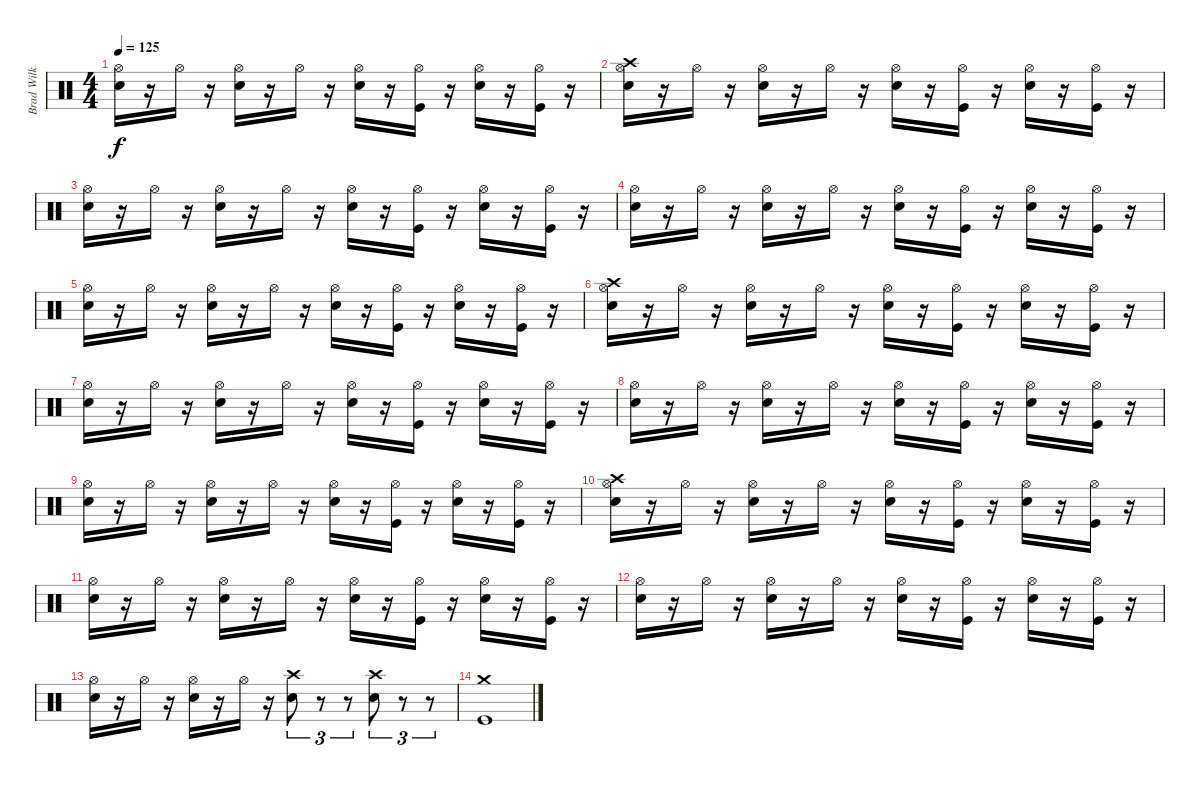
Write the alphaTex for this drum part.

\track ("Brad Wilk - Drums" "Brad Wilk ") {instrument percussion}
\staff {score}
\articulation defaults
\ts (4 4)
\tempo 125
\clef neutral
\ks c
("Snare (hit) 2" "Hi-Hat (open)").16{dy f} r.16 "Hi-Hat (open)".16 r.16 ("Snare (hit) 2" "Hi-Hat (open)").16 r.16 "Hi-Hat (open)".16 r.16 ("Snare (hit) 2" "Hi-Hat (open)").16 r.16 ("Hi-Hat (open)" "Kick (hit)").16 r.16 ("Snare (hit) 2" "Hi-Hat (open)").16 r.16 ("Hi-Hat (open)" "Kick (hit)").16 r.16 |
("Crash high (hit)" "Snare (hit) 2" "Hi-Hat (open)").16 r.16 "Hi-Hat (open)".16 r.16 ("Snare (hit) 2" "Hi-Hat (open)").16 r.16 "Hi-Hat (open)".16 r.16 ("Snare (hit) 2" "Hi-Hat (open)").16 r.16 ("Hi-Hat (open)" "Kick (hit)").16 r.16 ("Snare (hit) 2" "Hi-Hat (open)").16 r.16 ("Hi-Hat (open)" "Kick (hit)").16 r.16 |
("Snare (hit) 2" "Hi-Hat (open)").16 r.16 "Hi-Hat (open)".16 r.16 ("Snare (hit) 2" "Hi-Hat (open)").16 r.16 "Hi-Hat (open)".16 r.16 ("Snare (hit) 2" "Hi-Hat (open)").16 r.16 ("Hi-Hat (open)" "Kick (hit)").16 r.16 ("Snare (hit) 2" "Hi-Hat (open)").16 r.16 ("Hi-Hat (open)" "Kick (hit)").16 r.16 |
("Snare (hit) 2" "Hi-Hat (open)").16 r.16 "Hi-Hat (open)".16 r.16 ("Snare (hit) 2" "Hi-Hat (open)").16 r.16 "Hi-Hat (open)".16 r.16 ("Snare (hit) 2" "Hi-Hat (open)").16 r.16 ("Hi-Hat (open)" "Kick (hit)").16 r.16 ("Snare (hit) 2" "Hi-Hat (open)").16 r.16 ("Hi-Hat (open)" "Kick (hit)").16 r.16 |
("Snare (hit) 2" "Hi-Hat (open)").16 r.16 "Hi-Hat (open)".16 r.16 ("Snare (hit) 2" "Hi-Hat (open)").16 r.16 "Hi-Hat (open)".16 r.16 ("Snare (hit) 2" "Hi-Hat (open)").16 r.16 ("Hi-Hat (open)" "Kick (hit)").16 r.16 ("Snare (hit) 2" "Hi-Hat (open)").16 r.16 ("Hi-Hat (open)" "Kick (hit)").16 r.16 |
("Crash high (hit)" "Snare (hit) 2" "Hi-Hat (open)").16 r.16 "Hi-Hat (open)".16 r.16 ("Snare (hit) 2" "Hi-Hat (open)").16 r.16 "Hi-Hat (open)".16 r.16 ("Snare (hit) 2" "Hi-Hat (open)").16 r.16 ("Hi-Hat (open)" "Kick (hit)").16 r.16 ("Snare (hit) 2" "Hi-Hat (open)").16 r.16 ("Hi-Hat (open)" "Kick (hit)").16 r.16 |
("Snare (hit) 2" "Hi-Hat (open)").16 r.16 "Hi-Hat (open)".16 r.16 ("Snare (hit) 2" "Hi-Hat (open)").16 r.16 "Hi-Hat (open)".16 r.16 ("Snare (hit) 2" "Hi-Hat (open)").16 r.16 ("Hi-Hat (open)" "Kick (hit)").16 r.16 ("Snare (hit) 2" "Hi-Hat (open)").16 r.16 ("Hi-Hat (open)" "Kick (hit)").16 r.16 |
("Snare (hit) 2" "Hi-Hat (open)").16 r.16 "Hi-Hat (open)".16 r.16 ("Snare (hit) 2" "Hi-Hat (open)").16 r.16 "Hi-Hat (open)".16 r.16 ("Snare (hit) 2" "Hi-Hat (open)").16 r.16 ("Hi-Hat (open)" "Kick (hit)").16 r.16 ("Snare (hit) 2" "Hi-Hat (open)").16 r.16 ("Hi-Hat (open)" "Kick (hit)").16 r.16 |
("Snare (hit) 2" "Hi-Hat (open)").16 r.16 "Hi-Hat (open)".16 r.16 ("Snare (hit) 2" "Hi-Hat (open)").16 r.16 "Hi-Hat (open)".16 r.16 ("Snare (hit) 2" "Hi-Hat (open)").16 r.16 ("Hi-Hat (open)" "Kick (hit)").16 r.16 ("Snare (hit) 2" "Hi-Hat (open)").16 r.16 ("Hi-Hat (open)" "Kick (hit)").16 r.16 |
("Crash high (hit)" "Snare (hit) 2" "Hi-Hat (open)").16 r.16 "Hi-Hat (open)".16 r.16 ("Snare (hit) 2" "Hi-Hat (open)").16 r.16 "Hi-Hat (open)".16 r.16 ("Snare (hit) 2" "Hi-Hat (open)").16 r.16 ("Hi-Hat (open)" "Kick (hit)").16 r.16 ("Snare (hit) 2" "Hi-Hat (open)").16 r.16 ("Hi-Hat (open)" "Kick (hit)").16 r.16 |
("Snare (hit) 2" "Hi-Hat (open)").16 r.16 "Hi-Hat (open)".16 r.16 ("Snare (hit) 2" "Hi-Hat (open)").16 r.16 "Hi-Hat (open)".16 r.16 ("Snare (hit) 2" "Hi-Hat (open)").16 r.16 ("Hi-Hat (open)" "Kick (hit)").16 r.16 ("Snare (hit) 2" "Hi-Hat (open)").16 r.16 ("Hi-Hat (open)" "Kick (hit)").16 r.16 |
("Snare (hit) 2" "Hi-Hat (open)").16 r.16 "Hi-Hat (open)".16 r.16 ("Snare (hit) 2" "Hi-Hat (open)").16 r.16 "Hi-Hat (open)".16 r.16 ("Snare (hit) 2" "Hi-Hat (open)").16 r.16 ("Hi-Hat (open)" "Kick (hit)").16 r.16 ("Snare (hit) 2" "Hi-Hat (open)").16 r.16 ("Hi-Hat (open)" "Kick (hit)").16 r.16 |
("Snare (hit) 2" "Hi-Hat (open)").16 r.16 "Hi-Hat (open)".16 r.16 ("Snare (hit) 2" "Hi-Hat (open)").16 r.16 "Hi-Hat (open)".16 r.16 ("Snare (hit) 2" "Crash high (hit)").8{tu (3 2)} r.8{tu (3 2)} r.8{tu (3 2)} ("Snare (hit) 2" "Crash high (hit)").8{tu (3 2)} r.8{tu (3 2)} r.8{tu (3 2)} |
("Crash medium (hit)" "Kick (hit)").1
